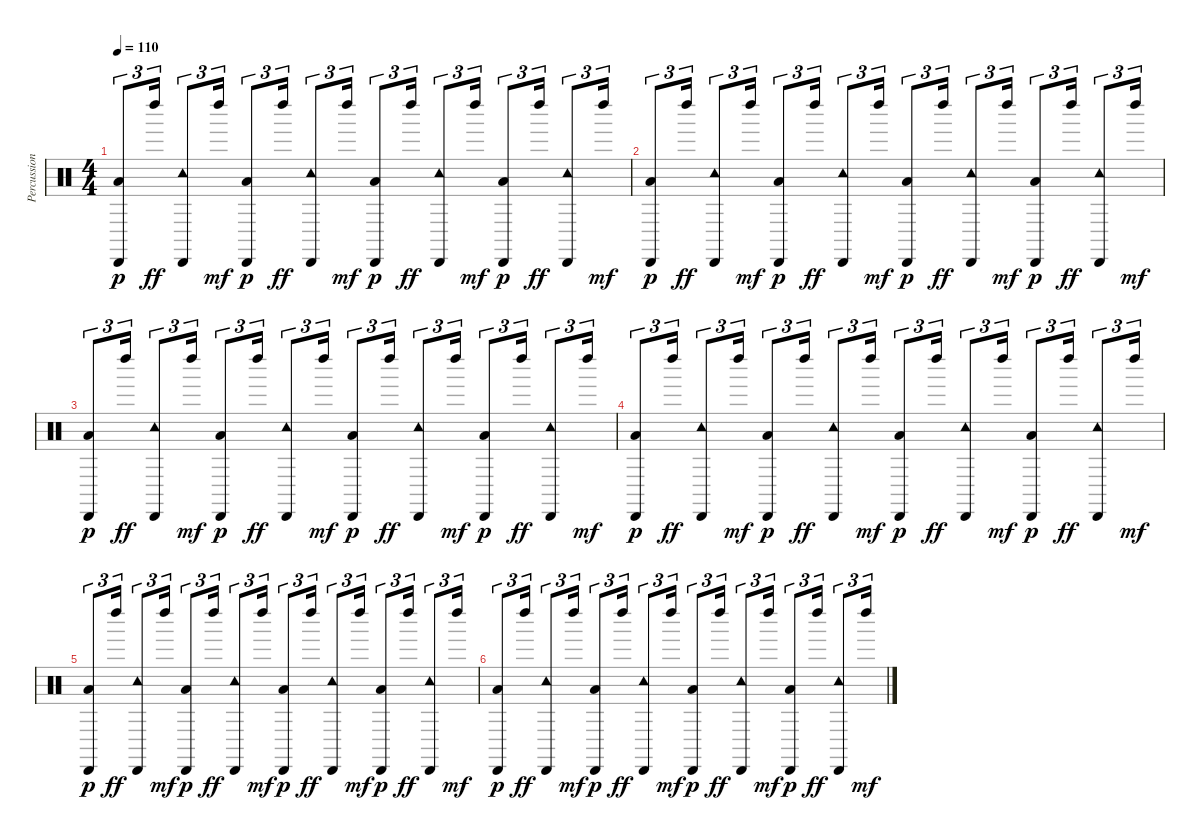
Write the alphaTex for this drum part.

\track ("Percussions" "Percussion") {instrument percussion}
\staff {score}
\articulation defaults
\ts (4 4)
\tempo 110
\clef neutral
\ks c
("Cabasa (hit)" "Low Floor Tom (hit)").8{tu (3 2) dy p} "Left Maraca (hit)".16{tu (3 2) dy ff} ("Tambourine (hit)" "Cabasa (hit)").8{tu (3 2)} "Left Maraca (hit)".16{tu (3 2) dy mf} ("Cabasa (hit)" "Low Floor Tom (hit)").8{tu (3 2) dy p} "Left Maraca (hit)".16{tu (3 2) dy ff} ("Tambourine (hit)" "Cabasa (hit)").8{tu (3 2)} "Left Maraca (hit)".16{tu (3 2) dy mf} ("Cabasa (hit)" "Low Floor Tom (hit)").8{tu (3 2) dy p} "Left Maraca (hit)".16{tu (3 2) dy ff} ("Tambourine (hit)" "Cabasa (hit)").8{tu (3 2)} "Left Maraca (hit)".16{tu (3 2) dy mf} ("Cabasa (hit)" "Low Floor Tom (hit)").8{tu (3 2) dy p} "Left Maraca (hit)".16{tu (3 2) dy ff} ("Tambourine (hit)" "Cabasa (hit)").8{tu (3 2)} "Left Maraca (hit)".16{tu (3 2) dy mf} |
("Cabasa (hit)" "Low Floor Tom (hit)").8{tu (3 2) dy p} "Left Maraca (hit)".16{tu (3 2) dy ff} ("Tambourine (hit)" "Cabasa (hit)").8{tu (3 2)} "Left Maraca (hit)".16{tu (3 2) dy mf} ("Cabasa (hit)" "Low Floor Tom (hit)").8{tu (3 2) dy p} "Left Maraca (hit)".16{tu (3 2) dy ff} ("Tambourine (hit)" "Cabasa (hit)").8{tu (3 2)} "Left Maraca (hit)".16{tu (3 2) dy mf} ("Cabasa (hit)" "Low Floor Tom (hit)").8{tu (3 2) dy p} "Left Maraca (hit)".16{tu (3 2) dy ff} ("Tambourine (hit)" "Cabasa (hit)").8{tu (3 2)} "Left Maraca (hit)".16{tu (3 2) dy mf} ("Cabasa (hit)" "Low Floor Tom (hit)").8{tu (3 2) dy p} "Left Maraca (hit)".16{tu (3 2) dy ff} ("Tambourine (hit)" "Cabasa (hit)").8{tu (3 2)} "Left Maraca (hit)".16{tu (3 2) dy mf} |
("Cabasa (hit)" "Low Floor Tom (hit)").8{tu (3 2) dy p volume 10} "Left Maraca (hit)".16{tu (3 2) dy ff} ("Tambourine (hit)" "Cabasa (hit)").8{tu (3 2)} "Left Maraca (hit)".16{tu (3 2) dy mf} ("Cabasa (hit)" "Low Floor Tom (hit)").8{tu (3 2) dy p} "Left Maraca (hit)".16{tu (3 2) dy ff} ("Tambourine (hit)" "Cabasa (hit)").8{tu (3 2)} "Left Maraca (hit)".16{tu (3 2) dy mf} ("Cabasa (hit)" "Low Floor Tom (hit)").8{tu (3 2) dy p} "Left Maraca (hit)".16{tu (3 2) dy ff} ("Tambourine (hit)" "Cabasa (hit)").8{tu (3 2)} "Left Maraca (hit)".16{tu (3 2) dy mf} ("Cabasa (hit)" "Low Floor Tom (hit)").8{tu (3 2) dy p} "Left Maraca (hit)".16{tu (3 2) dy ff} ("Tambourine (hit)" "Cabasa (hit)").8{tu (3 2)} "Left Maraca (hit)".16{tu (3 2) dy mf} |
("Cabasa (hit)" "Low Floor Tom (hit)").8{tu (3 2) dy p volume 6} "Left Maraca (hit)".16{tu (3 2) dy ff} ("Tambourine (hit)" "Cabasa (hit)").8{tu (3 2)} "Left Maraca (hit)".16{tu (3 2) dy mf} ("Cabasa (hit)" "Low Floor Tom (hit)").8{tu (3 2) dy p} "Left Maraca (hit)".16{tu (3 2) dy ff} ("Tambourine (hit)" "Cabasa (hit)").8{tu (3 2)} "Left Maraca (hit)".16{tu (3 2) dy mf} ("Cabasa (hit)" "Low Floor Tom (hit)").8{tu (3 2) dy p} "Left Maraca (hit)".16{tu (3 2) dy ff} ("Tambourine (hit)" "Cabasa (hit)").8{tu (3 2)} "Left Maraca (hit)".16{tu (3 2) dy mf} ("Cabasa (hit)" "Low Floor Tom (hit)").8{tu (3 2) dy p} "Left Maraca (hit)".16{tu (3 2) dy ff} ("Tambourine (hit)" "Cabasa (hit)").8{tu (3 2)} "Left Maraca (hit)".16{tu (3 2) dy mf} |
("Cabasa (hit)" "Low Floor Tom (hit)").8{tu (3 2) dy p volume 4} "Left Maraca (hit)".16{tu (3 2) dy ff} ("Tambourine (hit)" "Cabasa (hit)").8{tu (3 2)} "Left Maraca (hit)".16{tu (3 2) dy mf} ("Cabasa (hit)" "Low Floor Tom (hit)").8{tu (3 2) dy p} "Left Maraca (hit)".16{tu (3 2) dy ff} ("Tambourine (hit)" "Cabasa (hit)").8{tu (3 2)} "Left Maraca (hit)".16{tu (3 2) dy mf} ("Cabasa (hit)" "Low Floor Tom (hit)").8{tu (3 2) dy p} "Left Maraca (hit)".16{tu (3 2) dy ff} ("Tambourine (hit)" "Cabasa (hit)").8{tu (3 2)} "Left Maraca (hit)".16{tu (3 2) dy mf} ("Cabasa (hit)" "Low Floor Tom (hit)").8{tu (3 2) dy p} "Left Maraca (hit)".16{tu (3 2) dy ff} ("Tambourine (hit)" "Cabasa (hit)").8{tu (3 2)} "Left Maraca (hit)".16{tu (3 2) dy mf} |
("Cabasa (hit)" "Low Floor Tom (hit)").8{tu (3 2) dy p volume 0} "Left Maraca (hit)".16{tu (3 2) dy ff} ("Tambourine (hit)" "Cabasa (hit)").8{tu (3 2)} "Left Maraca (hit)".16{tu (3 2) dy mf} ("Cabasa (hit)" "Low Floor Tom (hit)").8{tu (3 2) dy p} "Left Maraca (hit)".16{tu (3 2) dy ff} ("Tambourine (hit)" "Cabasa (hit)").8{tu (3 2)} "Left Maraca (hit)".16{tu (3 2) dy mf} ("Cabasa (hit)" "Low Floor Tom (hit)").8{tu (3 2) dy p} "Left Maraca (hit)".16{tu (3 2) dy ff} ("Tambourine (hit)" "Cabasa (hit)").8{tu (3 2)} "Left Maraca (hit)".16{tu (3 2) dy mf} ("Cabasa (hit)" "Low Floor Tom (hit)").8{tu (3 2) dy p} "Left Maraca (hit)".16{tu (3 2) dy ff} ("Tambourine (hit)" "Cabasa (hit)").8{tu (3 2)} "Left Maraca (hit)".16{tu (3 2) dy mf}
